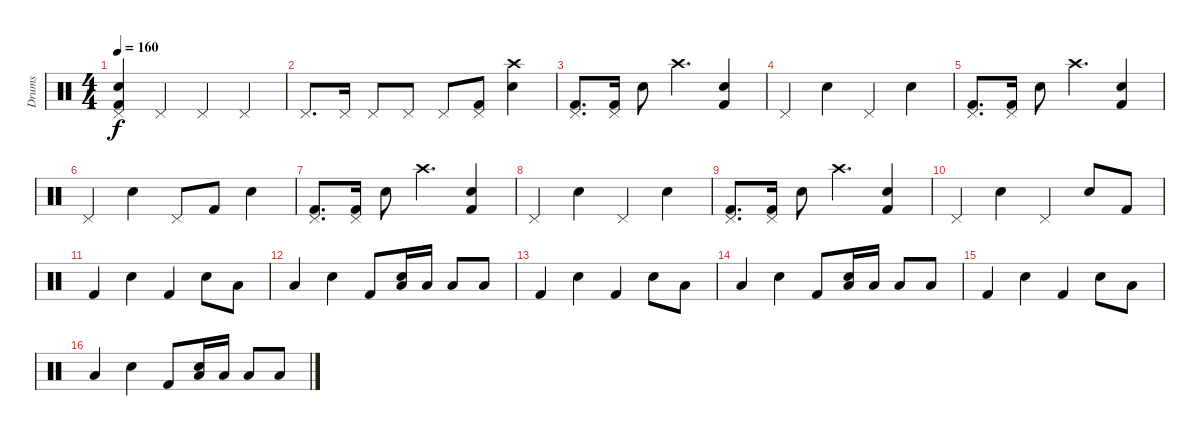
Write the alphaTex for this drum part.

\track ("Drums" "Drums") {instrument percussion}
\staff {score}
\articulation defaults
\ts (4 4)
\tempo 160
\clef neutral
\ks c
("Pedal Hi-Hat (hit)" "Snare (hit) 2" "Kick (hit) 2").4{dy f} "Pedal Hi-Hat (hit)".4 "Pedal Hi-Hat (hit)".4 "Pedal Hi-Hat (hit)".4 |
"Pedal Hi-Hat (hit)".8{d} "Pedal Hi-Hat (hit)".16 "Pedal Hi-Hat (hit)".8 "Pedal Hi-Hat (hit)".8 "Pedal Hi-Hat (hit)".8 ("Pedal Hi-Hat (hit)" "Kick (hit) 2").8 ("Crash high (hit)" "Snare (hit) 2").4 |
("Pedal Hi-Hat (hit)" "Kick (hit) 2").8{d} ("Pedal Hi-Hat (hit)" "Kick (hit) 2").16 "Snare (hit) 2".8 "Crash high (hit)".4{d} ("Snare (hit) 2" "Kick (hit) 2").4 |
"Pedal Hi-Hat (hit)".4 "Snare (hit) 2".4 "Pedal Hi-Hat (hit)".4 "Snare (hit) 2".4 |
("Pedal Hi-Hat (hit)" "Kick (hit) 2").8{d} ("Pedal Hi-Hat (hit)" "Kick (hit) 2").16 "Snare (hit) 2".8 "Crash high (hit)".4{d} ("Snare (hit) 2" "Kick (hit) 2").4 |
"Pedal Hi-Hat (hit)".4 "Snare (hit) 2".4 "Pedal Hi-Hat (hit)".8 "Kick (hit) 2".8 "Snare (hit) 2".4 |
("Pedal Hi-Hat (hit)" "Kick (hit) 2").8{d} ("Pedal Hi-Hat (hit)" "Kick (hit) 2").16 "Snare (hit) 2".8 "Crash high (hit)".4{d} ("Snare (hit) 2" "Kick (hit) 2").4 |
"Pedal Hi-Hat (hit)".4 "Snare (hit) 2".4 "Pedal Hi-Hat (hit)".4 "Snare (hit) 2".4 |
("Pedal Hi-Hat (hit)" "Kick (hit) 2").8{d} ("Pedal Hi-Hat (hit)" "Kick (hit) 2").16 "Snare (hit) 2".8 "Crash high (hit)".4{d} ("Snare (hit) 2" "Kick (hit) 2").4 |
"Pedal Hi-Hat (hit)".4 "Snare (hit) 2".4 "Pedal Hi-Hat (hit)".4 "Snare (hit) 2".8 "Kick (hit) 2".8 |
"Kick (hit) 2".4 "Snare (hit) 2".4 "Kick (hit) 2".4 "Snare (hit) 2".8 "Low Tom (hit)".8 |
"Low Tom (hit)".4 "Snare (hit) 2".4 "Kick (hit) 2".8 ("Low Tom (hit)" "Snare (hit) 2").16 "Low Tom (hit)".16 "Low Tom (hit)".8 "Low Tom (hit)".8 |
"Kick (hit) 2".4 "Snare (hit) 2".4 "Kick (hit) 2".4 "Snare (hit) 2".8 "Low Tom (hit)".8 |
"Low Tom (hit)".4 "Snare (hit) 2".4 "Kick (hit) 2".8 ("Low Tom (hit)" "Snare (hit) 2").16 "Low Tom (hit)".16 "Low Tom (hit)".8 "Low Tom (hit)".8 |
"Kick (hit) 2".4 "Snare (hit) 2".4 "Kick (hit) 2".4 "Snare (hit) 2".8 "Low Tom (hit)".8 |
"Low Tom (hit)".4 "Snare (hit) 2".4 "Kick (hit) 2".8 ("Low Tom (hit)" "Snare (hit) 2").16 "Low Tom (hit)".16 "Low Tom (hit)".8 "Low Tom (hit)".8
